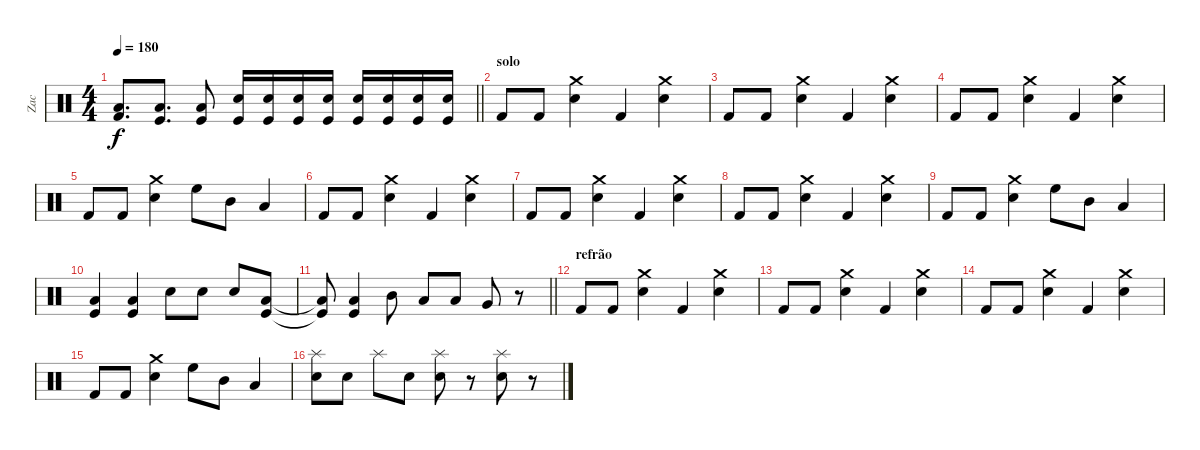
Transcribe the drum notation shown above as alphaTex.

\track ("Zac" "Zac") {instrument percussion}
\staff {score}
\articulation defaults
\ts (4 4)
\tempo 180
\clef neutral
\barLineRight lightlight
\ks c
("Kick (hit) 2" "Low Floor Tom (hit)").8{d dy f} ("Kick (hit)" "Low Floor Tom (hit)").8{d} ("Kick (hit)" "Low Floor Tom (hit)").8 ("Kick (hit)" "Electric Snare (hit)").16 ("Kick (hit)" "Electric Snare (hit)").16 ("Kick (hit)" "Electric Snare (hit)").16 ("Kick (hit)" "Electric Snare (hit)").16 ("Kick (hit)" "Electric Snare (hit)").16 ("Kick (hit)" "Electric Snare (hit)").16 ("Kick (hit)" "Electric Snare (hit)").16 ("Kick (hit)" "Electric Snare (hit)").16 |
\section ("" "solo")
"Kick (hit) 2".8 "Kick (hit) 2".8 ("Crash medium (hit)" "Electric Snare (hit)").4 "Kick (hit) 2".4 ("Crash medium (hit)" "Electric Snare (hit)").4 |
"Kick (hit) 2".8 "Kick (hit) 2".8 ("Crash medium (hit)" "Electric Snare (hit)").4 "Kick (hit) 2".4 ("Crash medium (hit)" "Electric Snare (hit)").4 |
"Kick (hit) 2".8 "Kick (hit) 2".8 ("Crash medium (hit)" "Electric Snare (hit)").4 "Kick (hit) 2".4 ("Crash medium (hit)" "Electric Snare (hit)").4 |
"Kick (hit) 2".8 "Kick (hit) 2".8 ("Crash medium (hit)" "Electric Snare (hit)").4 "High Floor Tom (hit)".8 "Mid Tom (hit)".8 "Low Tom (hit)".4 |
"Kick (hit) 2".8 "Kick (hit) 2".8 ("Crash medium (hit)" "Electric Snare (hit)").4 "Kick (hit) 2".4 ("Crash medium (hit)" "Electric Snare (hit)").4 |
"Kick (hit) 2".8 "Kick (hit) 2".8 ("Crash medium (hit)" "Electric Snare (hit)").4 "Kick (hit) 2".4 ("Crash medium (hit)" "Electric Snare (hit)").4 |
"Kick (hit) 2".8 "Kick (hit) 2".8 ("Crash medium (hit)" "Electric Snare (hit)").4 "Kick (hit) 2".4 ("Crash medium (hit)" "Electric Snare (hit)").4 |
"Kick (hit) 2".8 "Kick (hit) 2".8 ("Crash medium (hit)" "Electric Snare (hit)").4 "High Floor Tom (hit)".8 "Mid Tom (hit)".8 "Low Tom (hit)".4 |
("Low Floor Tom (hit)" "Kick (hit)").4 ("Low Floor Tom (hit)" "Kick (hit)").4 "Electric Snare (hit)".8 "Electric Snare (hit)".8 "Electric Snare (hit)".8 ("Low Floor Tom (hit)" "Kick (hit)").8 |
\barLineRight lightlight
("Low Floor Tom (hit)"{t} "Kick (hit)"{t}).8 ("Low Floor Tom (hit)" "Kick (hit)").4 "Mid Tom (hit)".8 "Low Floor Tom (hit)".8 "Low Floor Tom (hit)".8 "Very Low Tom (hit)".8 r.8 |
\section ("" "refrão")
"Kick (hit) 2".8 "Kick (hit) 2".8 ("Crash medium (hit)" "Electric Snare (hit)").4 "Kick (hit) 2".4 ("Crash medium (hit)" "Electric Snare (hit)").4 |
"Kick (hit) 2".8 "Kick (hit) 2".8 ("Crash medium (hit)" "Electric Snare (hit)").4 "Kick (hit) 2".4 ("Crash medium (hit)" "Electric Snare (hit)").4 |
"Kick (hit) 2".8 "Kick (hit) 2".8 ("Crash medium (hit)" "Electric Snare (hit)").4 "Kick (hit) 2".4 ("Crash medium (hit)" "Electric Snare (hit)").4 |
"Kick (hit) 2".8 "Kick (hit) 2".8 ("Crash medium (hit)" "Electric Snare (hit)").4 "High Floor Tom (hit)".8 "Mid Tom (hit)".8 "Low Tom (hit)".4 |
("Electric Snare (hit)" "Splash (hit)").8 "Electric Snare (hit)".8 "Splash (hit)".8 "Electric Snare (hit)".8 ("Electric Snare (hit)" "Splash (hit)").8 r.8 ("Electric Snare (hit)" "Splash (hit)").8 r.8
